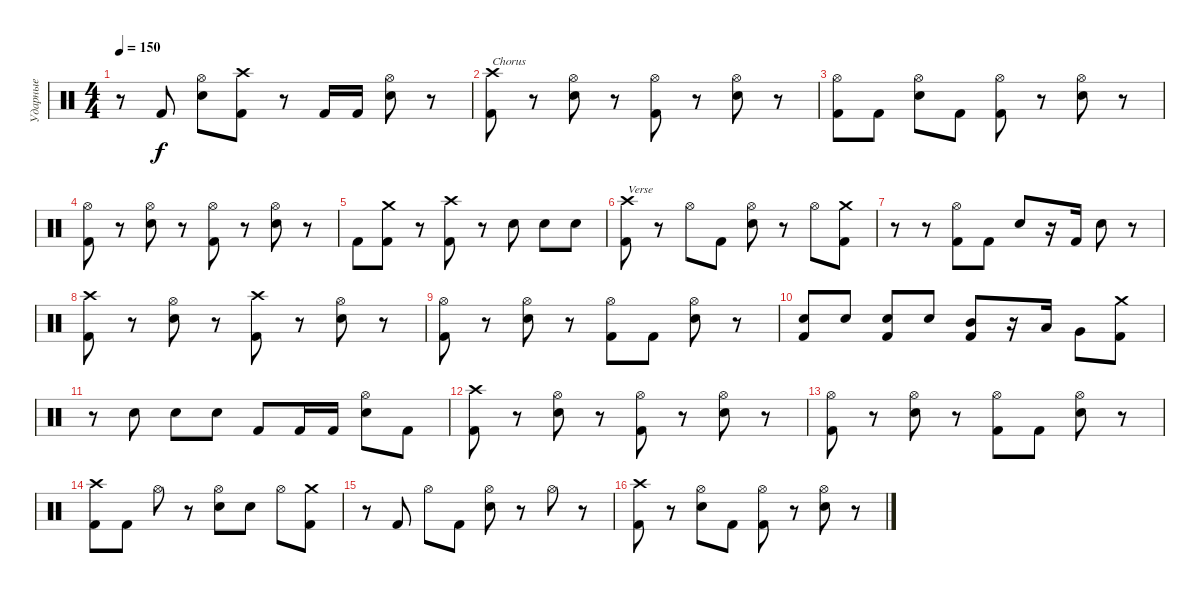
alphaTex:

\track ("Ударные" "Ударные") {instrument percussion}
\staff
\articulation defaults
\ts (4 4)
\tempo 150
\clef neutral
\ks c
r.8{dy f} "Kick (hit) 2".8 ("Snare (hit) 2" "Hi-Hat (open)").8 ("Kick (hit) 2" "Crash high (hit)").8 r.8 "Kick (hit) 2".16 "Kick (hit) 2".16 ("Snare (hit) 2" "Hi-Hat (open)").8 r.8 |
("Kick (hit) 2" "Crash high (hit)").8{txt "Chorus"} r.8 ("Snare (hit) 2" "Hi-Hat (open)").8 r.8 ("Kick (hit) 2" "Hi-Hat (open)").8 r.8 ("Snare (hit) 2" "Hi-Hat (open)").8 r.8 |
("Kick (hit) 2" "Hi-Hat (open)").8 "Kick (hit) 2".8 ("Snare (hit) 2" "Hi-Hat (open)").8 "Kick (hit) 2".8 ("Kick (hit) 2" "Hi-Hat (open)").8 r.8 ("Snare (hit) 2" "Hi-Hat (open)").8 r.8 |
("Kick (hit) 2" "Hi-Hat (open)").8 r.8 ("Snare (hit) 2" "Hi-Hat (open)").8 r.8 ("Kick (hit) 2" "Hi-Hat (open)").8 r.8 ("Snare (hit) 2" "Hi-Hat (open)").8 r.8 |
"Kick (hit) 2".8 ("Kick (hit) 2" "Crash medium (hit)").8 r.8 ("Kick (hit) 2" "Crash high (hit)").8 r.8 "Snare (hit) 2".8 "Snare (hit) 2".8 "Snare (hit) 2".8 |
("Kick (hit) 2" "Crash high (hit)").8{txt "Verse"} r.8 "Hi-Hat (open)".8 "Kick (hit) 2".8 ("Snare (hit) 2" "Hi-Hat (open)").8 r.8 "Hi-Hat (open)".8 ("Kick (hit) 2" "Crash medium (hit)").8 |
r.8 r.8 ("Kick (hit) 2" "Hi-Hat (open)").8 "Kick (hit) 2".8 "Snare (hit) 2".8 r.16 "Kick (hit) 2".16 "Snare (hit) 2".8 r.8 |
("Kick (hit) 2" "Crash high (hit)").8 r.8 ("Snare (hit) 2" "Hi-Hat (open)").8 r.8 ("Kick (hit) 2" "Crash high (hit)").8 r.8 ("Snare (hit) 2" "Hi-Hat (open)").8 r.8 |
("Kick (hit) 2" "Hi-Hat (open)").8 r.8 ("Snare (hit) 2" "Hi-Hat (open)").8 r.8 ("Kick (hit) 2" "Hi-Hat (open)").8 "Kick (hit) 2".8 ("Snare (hit) 2" "Hi-Hat (open)").8 r.8 |
("Kick (hit) 2" "Snare (hit) 2").8 "Snare (hit) 2".8 ("Kick (hit) 2" "Snare (hit) 2").8 "Snare (hit) 2".8 ("Kick (hit) 2" "Mid Tom (hit)").8 r.16 "Low Tom (hit)".16 "Very Low Tom (hit)".8 ("Kick (hit) 2" "Crash medium (hit)").8 |
r.8 "Snare (hit) 2".8 "Snare (hit) 2".8 "Snare (hit) 2".8 "Kick (hit) 2".8 "Kick (hit) 2".16 "Kick (hit) 2".16 ("Snare (hit) 2" "Hi-Hat (open)").8 "Kick (hit) 2".8 |
("Kick (hit) 2" "Crash high (hit)").8 r.8 ("Snare (hit) 2" "Hi-Hat (open)").8 r.8 ("Kick (hit) 2" "Hi-Hat (open)").8 r.8 ("Snare (hit) 2" "Hi-Hat (open)").8 r.8 |
("Kick (hit) 2" "Hi-Hat (open)").8 r.8 ("Snare (hit) 2" "Hi-Hat (open)").8 r.8 ("Kick (hit) 2" "Hi-Hat (open)").8 "Kick (hit) 2".8 ("Snare (hit) 2" "Hi-Hat (open)").8 r.8 |
("Kick (hit) 2" "Crash high (hit)").8 "Kick (hit) 2".8 "Hi-Hat (open)".8 r.8 ("Snare (hit) 2" "Hi-Hat (open)").8 "Snare (hit) 2".8 "Hi-Hat (open)".8 ("Kick (hit) 2" "Crash medium (hit)").8 |
r.8 "Kick (hit) 2".8 "Hi-Hat (open)".8 "Kick (hit) 2".8 ("Snare (hit) 2" "Hi-Hat (open)").8 r.8 "Hi-Hat (open)".8 r.8 |
("Kick (hit) 2" "Crash high (hit)").8 r.8 ("Snare (hit) 2" "Hi-Hat (open)").8 "Kick (hit) 2".8 ("Kick (hit) 2" "Hi-Hat (open)").8 r.8 ("Snare (hit) 2" "Hi-Hat (open)").8 r.8
